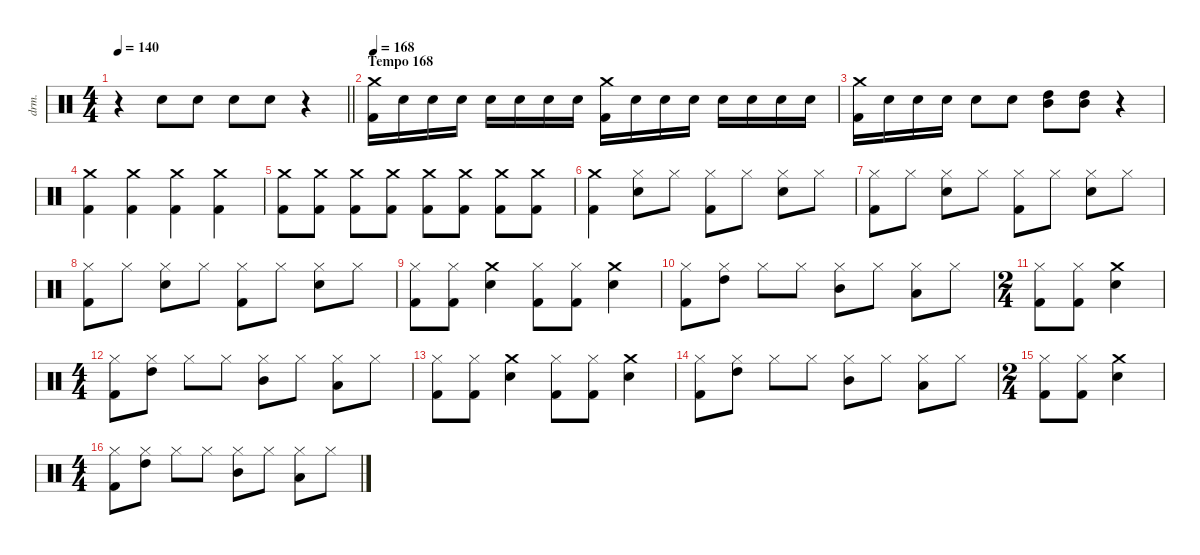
\defaultSystemsLayout 4
\hideDynamics
\bracketExtendMode nobrackets
\otherSystemsTrackNameOrientation horizontal
\track ("Drums" "drm.") {instrument percussion}
\staff {score}
\articulation defaults
\ts (4 4)
\tempo 140
\clef neutral
\barLineRight lightlight
\ks c
r.4{dy fff} "Snare (hit) 2".8 "Snare (hit) 2".8 "Snare (hit) 2".8 "Snare (hit) 2".8 r.4 |
\section ("" "Tempo 168")
\tempo 168
("Kick (hit) 2" "Crash medium (hit)").16 "Snare (hit) 2".16 "Snare (hit) 2".16 "Snare (hit) 2".16 "Snare (hit) 2".16 "Snare (hit) 2".16 "Snare (hit) 2".16 "Snare (hit) 2".16 ("Kick (hit) 2" "Crash medium (hit)").16 "Snare (hit) 2".16 "Snare (hit) 2".16 "Snare (hit) 2".16 "Snare (hit) 2".16 "Snare (hit) 2".16 "Snare (hit) 2".16 "Snare (hit) 2".16 |
("Kick (hit) 2" "Crash medium (hit)").16 "Snare (hit) 2".16 "Snare (hit) 2".16 "Snare (hit) 2".16 "Snare (hit) 2".8 "Snare (hit) 2".8 ("High Tom (hit)" "Mid Tom (hit)").8 ("High Tom (hit)" "Mid Tom (hit)").8 r.4 |
("Crash medium (hit)" "Kick (hit) 2").4 ("Crash medium (hit)" "Kick (hit) 2").4 ("Crash medium (hit)" "Kick (hit) 2").4 ("Crash medium (hit)" "Kick (hit) 2").4 |
("Kick (hit) 2" "Crash medium (hit)").8 ("Kick (hit) 2" "Crash medium (hit)").8 ("Kick (hit) 2" "Crash medium (hit)").8 ("Kick (hit) 2" "Crash medium (hit)").8 ("Kick (hit) 2" "Crash medium (hit)").8 ("Kick (hit) 2" "Crash medium (hit)").8 ("Kick (hit) 2" "Crash medium (hit)").8 ("Kick (hit) 2" "Crash medium (hit)").8 |
("Crash medium (hit)" "Kick (hit) 2").4 ("Hi-Hat (closed)" "Snare (hit) 2").8 "Hi-Hat (closed)".8 ("Kick (hit) 2" "Hi-Hat (closed)").8 "Hi-Hat (closed)".8 ("Snare (hit) 2" "Hi-Hat (closed)").8 "Hi-Hat (closed)".8 |
("Kick (hit) 2" "Hi-Hat (closed)").8 "Hi-Hat (closed)".8 ("Snare (hit) 2" "Hi-Hat (closed)").8 "Hi-Hat (closed)".8 ("Kick (hit) 2" "Hi-Hat (closed)").8 "Hi-Hat (closed)".8 ("Snare (hit) 2" "Hi-Hat (closed)").8 "Hi-Hat (closed)".8 |
("Kick (hit) 2" "Hi-Hat (closed)").8 "Hi-Hat (closed)".8 ("Snare (hit) 2" "Hi-Hat (closed)").8 "Hi-Hat (closed)".8 ("Kick (hit) 2" "Hi-Hat (closed)").8 "Hi-Hat (closed)".8 ("Snare (hit) 2" "Hi-Hat (closed)").8 "Hi-Hat (closed)".8 |
("Kick (hit) 2" "Hi-Hat (closed)").8 ("Kick (hit) 2" "Hi-Hat (closed)").8 ("Snare (hit) 2" "Crash medium (hit)").4 ("Hi-Hat (closed)" "Kick (hit) 2").8 ("Hi-Hat (closed)" "Kick (hit) 2").8 ("Crash medium (hit)" "Snare (hit) 2").4 |
("Hi-Hat (closed)" "Kick (hit) 2").8 ("High Tom (hit)" "Hi-Hat (closed)").8 "Hi-Hat (closed)".8 "Hi-Hat (closed)".8 ("Mid Tom (hit)" "Hi-Hat (closed)").8 "Hi-Hat (closed)".8 ("Low Tom (hit)" "Hi-Hat (closed)").8 "Hi-Hat (closed)".8 |
\ts (2 4)
\beaming (8 2 2)
("Kick (hit) 2" "Hi-Hat (closed)").8 ("Kick (hit) 2" "Hi-Hat (closed)").8 ("Snare (hit) 2" "Crash medium (hit)").4 |
\ts (4 4)
\beaming (8 2 2 2 2)
("Hi-Hat (closed)" "Kick (hit) 2").8 ("High Tom (hit)" "Hi-Hat (closed)").8 "Hi-Hat (closed)".8 "Hi-Hat (closed)".8 ("Mid Tom (hit)" "Hi-Hat (closed)").8 "Hi-Hat (closed)".8 ("Low Tom (hit)" "Hi-Hat (closed)").8 "Hi-Hat (closed)".8 |
("Hi-Hat (closed)" "Kick (hit) 2").8 ("Hi-Hat (closed)" "Kick (hit) 2").8 ("Snare (hit) 2" "Crash medium (hit)").4 ("Kick (hit) 2" "Hi-Hat (closed)").8 ("Kick (hit) 2" "Hi-Hat (closed)").8 ("Crash medium (hit)" "Snare (hit) 2").4 |
("Hi-Hat (closed)" "Kick (hit) 2").8 ("High Tom (hit)" "Hi-Hat (closed)").8 "Hi-Hat (closed)".8 "Hi-Hat (closed)".8 ("Mid Tom (hit)" "Hi-Hat (closed)").8 "Hi-Hat (closed)".8 ("Low Tom (hit)" "Hi-Hat (closed)").8 "Hi-Hat (closed)".8 |
\ts (2 4)
\beaming (8 2 2)
("Hi-Hat (closed)" "Kick (hit) 2").8 ("Hi-Hat (closed)" "Kick (hit) 2").8 ("Crash medium (hit)" "Snare (hit) 2").4 |
\ts (4 4)
\beaming (8 2 2 2 2)
("Hi-Hat (closed)" "Kick (hit) 2").8 ("High Tom (hit)" "Hi-Hat (closed)").8 "Hi-Hat (closed)".8 "Hi-Hat (closed)".8 ("Mid Tom (hit)" "Hi-Hat (closed)").8 "Hi-Hat (closed)".8 ("Low Tom (hit)" "Hi-Hat (closed)").8 "Hi-Hat (closed)".8
